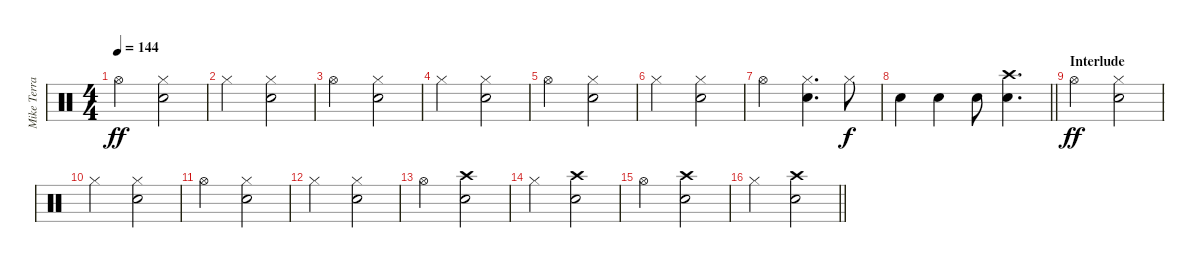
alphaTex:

\track ("Mike Terrana" "Mike Terra") {instrument percussion}
\staff {score}
\articulation defaults
\ts (4 4)
\tempo 144
\clef neutral
\ks c "Hi-Hat (open)".2{dy ff}
("Snare (hit) 2" "Hi-Hat (closed)").2 |
"Hi-Hat (closed)".2 ("Snare (hit) 2" "Hi-Hat (closed)").2 |
"Hi-Hat (open)".2 ("Snare (hit) 2" "Hi-Hat (closed)").2 |
"Hi-Hat (closed)".2 ("Snare (hit) 2" "Hi-Hat (closed)").2 |
"Hi-Hat (open)".2 ("Snare (hit) 2" "Hi-Hat (closed)").2 |
"Hi-Hat (closed)".2 ("Snare (hit) 2" "Hi-Hat (closed)").2 |
"Hi-Hat (open)".2 ("Snare (hit) 2" "Hi-Hat (closed)").4{d} "Hi-Hat (closed)".8{dy f} |
\barLineRight lightlight "Snare (hit) 2".4 "Snare (hit) 2".4 "Snare (hit) 2".8
("Snare (hit) 2" "Crash high (hit)").4{d} |
\section ("" "Interlude")
"Hi-Hat (open)".2{dy ff} ("Snare (hit) 2" "Hi-Hat (closed)").2 |
"Hi-Hat (closed)".2 ("Snare (hit) 2" "Hi-Hat (closed)").2 |
"Hi-Hat (open)".2 ("Snare (hit) 2" "Hi-Hat (closed)").2 |
"Hi-Hat (closed)".2 ("Snare (hit) 2" "Hi-Hat (closed)").2 |
"Hi-Hat (open)".2 ("Snare (hit) 2" "Crash high (hit)").2 |
"Hi-Hat (closed)".2 ("Snare (hit) 2" "Crash high (hit)").2 |
"Hi-Hat (open)".2 ("Snare (hit) 2" "Crash high (hit)").2 |
\barLineRight lightlight "Hi-Hat (closed)".2
("Snare (hit) 2" "Crash high (hit)").2
